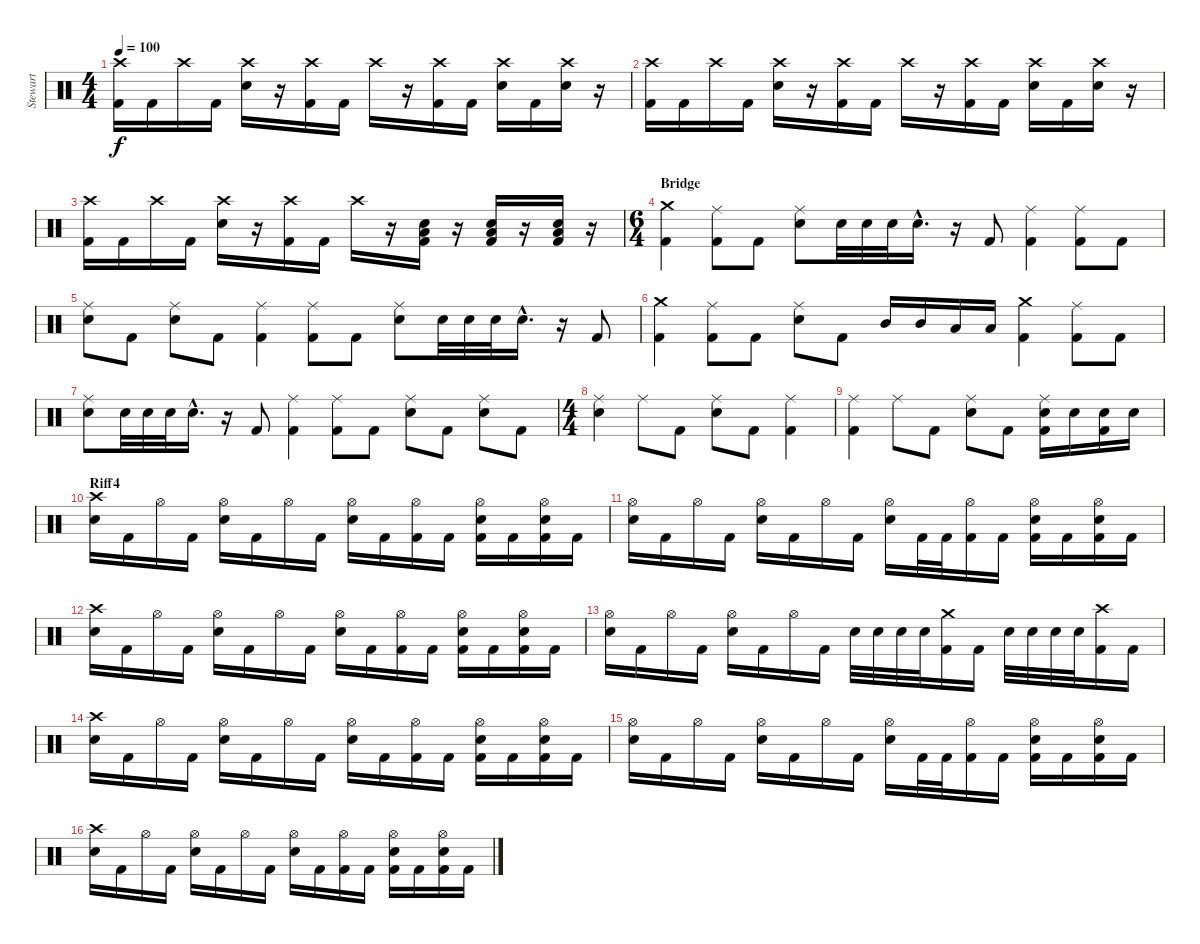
\track ("Stewart" "Stewart") {instrument percussion}
\staff {score}
\articulation defaults
\ts (4 4)
\tempo 100
\clef neutral
\ks c
("Crash high (hit)" "Kick (hit) 2").16{dy f} "Kick (hit) 2".16 "Crash high (hit)".16 "Kick (hit) 2".16 ("Crash high (hit)" "Snare (hit) 2").16 r.16 ("Crash high (hit)" "Kick (hit) 2").16 "Kick (hit) 2".16 "Crash high (hit)".16 r.16 ("Crash high (hit)" "Kick (hit) 2").16 "Kick (hit) 2".16 ("Crash high (hit)" "Snare (hit) 2").16 "Kick (hit) 2".16 ("Crash high (hit)" "Snare (hit) 2").16 r.16 |
("Crash high (hit)" "Kick (hit) 2").16 "Kick (hit) 2".16 "Crash high (hit)".16 "Kick (hit) 2".16 ("Crash high (hit)" "Snare (hit) 2").16 r.16 ("Crash high (hit)" "Kick (hit) 2").16 "Kick (hit) 2".16 "Crash high (hit)".16 r.16 ("Crash high (hit)" "Kick (hit) 2").16 "Kick (hit) 2".16 ("Crash high (hit)" "Snare (hit) 2").16 "Kick (hit) 2".16 ("Crash high (hit)" "Snare (hit) 2").16 r.16 |
("Crash high (hit)" "Kick (hit) 2").16 "Kick (hit) 2".16 "Crash high (hit)".16 "Kick (hit) 2".16 ("Crash high (hit)" "Snare (hit) 2").16 r.16 ("Crash high (hit)" "Kick (hit) 2").16 "Kick (hit) 2".16 "Crash high (hit)".16 r.16 ("Snare (hit) 2" "Low Floor Tom (hit)" "Kick (hit) 2").16 r.16 ("Low Floor Tom (hit)" "Kick (hit) 2" "Snare (hit) 2").16 r.16 ("Low Floor Tom (hit)" "Kick (hit) 2" "Snare (hit) 2").16 r.16 |
\ts (6 4)
\section ("" "Bridge")
("Crash medium (hit)" "Kick (hit) 2").4 ("Ride (middle)" "Kick (hit) 2").8 "Kick (hit) 2".8 ("Ride (middle)" "Snare (hit) 2").8 "Snare (hit) 2".32 "Snare (hit) 2".32 "Snare (hit) 2".32 "Snare (hit) 2"{hac}.16{d} r.16 "Kick (hit) 2".8 ("Ride (middle)" "Kick (hit) 2").4 ("Ride (middle)" "Kick (hit) 2").8 "Kick (hit) 2".8 |
("Ride (middle)" "Snare (hit) 2").8 "Kick (hit) 2".8 ("Ride (middle)" "Snare (hit) 2").8 "Kick (hit) 2".8 ("Ride (middle)" "Kick (hit) 2").4 ("Ride (middle)" "Kick (hit) 2").8 "Kick (hit) 2".8 ("Ride (middle)" "Snare (hit) 2").8 "Snare (hit) 2".32 "Snare (hit) 2".32 "Snare (hit) 2".32 "Snare (hit) 2"{hac}.16{d} r.16 "Kick (hit) 2".8 |
("Crash medium (hit)" "Kick (hit) 2").4 ("Ride (middle)" "Kick (hit) 2").8 "Kick (hit) 2".8 ("Ride (middle)" "Snare (hit) 2").8 "Kick (hit) 2".8 "Mid Tom (hit)".16 "Mid Tom (hit)".16 "Low Tom (hit)".16 "Low Tom (hit)".16 ("Crash medium (hit)" "Kick (hit) 2").4 ("Ride (middle)" "Kick (hit) 2").8 "Kick (hit) 2".8 |
("Ride (middle)" "Snare (hit) 2").8 "Snare (hit) 2".32 "Snare (hit) 2".32 "Snare (hit) 2".32 "Snare (hit) 2"{hac}.16{d} r.16 "Kick (hit) 2".8 ("Ride (middle)" "Kick (hit) 2").4 ("Ride (middle)" "Kick (hit) 2").8 "Kick (hit) 2".8 ("Ride (middle)" "Snare (hit) 2").8 "Kick (hit) 2".8 ("Ride (middle)" "Snare (hit) 2").8 "Kick (hit) 2".8 |
\ts (4 4)
("Ride (middle)" "Snare (hit) 2").4 "Ride (middle)".8 "Kick (hit) 2".8 ("Ride (middle)" "Snare (hit) 2").8 "Kick (hit) 2".8 ("Ride (middle)" "Kick (hit) 2").4 |
("Ride (middle)" "Kick (hit) 2").4 "Ride (middle)".8 "Kick (hit) 2".8 ("Ride (middle)" "Snare (hit) 2").8 "Kick (hit) 2".8 ("Ride (middle)" "Snare (hit) 2" "Kick (hit) 2").16 "Snare (hit) 2".16 ("Snare (hit) 2" "Kick (hit) 2").16 "Snare (hit) 2".16 |
\section ("" "Riff4")
("Crash high (hit)" "Snare (hit) 2").16 "Kick (hit) 2".16 "Hi-Hat (open)".16 "Kick (hit) 2".16 ("Hi-Hat (open)" "Snare (hit) 2").16 "Kick (hit) 2".16 "Hi-Hat (open)".16 "Kick (hit) 2".16 ("Hi-Hat (open)" "Snare (hit) 2").16 "Kick (hit) 2".16 ("Hi-Hat (open)" "Kick (hit) 2").16 "Kick (hit) 2".16 ("Hi-Hat (open)" "Snare (hit) 2" "Kick (hit) 2").16 "Kick (hit) 2".16 ("Hi-Hat (open)" "Snare (hit) 2" "Kick (hit) 2").16 "Kick (hit) 2".16 |
("Hi-Hat (open)" "Snare (hit) 2").16 "Kick (hit) 2".16 "Hi-Hat (open)".16 "Kick (hit) 2".16 ("Hi-Hat (open)" "Snare (hit) 2").16 "Kick (hit) 2".16 "Hi-Hat (open)".16 "Kick (hit) 2".16 ("Hi-Hat (open)" "Snare (hit) 2").16 "Kick (hit) 2".32 "Kick (hit) 2".32 ("Hi-Hat (open)" "Kick (hit) 2").16 "Kick (hit) 2".16 ("Hi-Hat (open)" "Snare (hit) 2" "Kick (hit) 2").16 "Kick (hit) 2".16 ("Hi-Hat (open)" "Snare (hit) 2" "Kick (hit) 2").16 "Kick (hit) 2".16 |
("Crash high (hit)" "Snare (hit) 2").16 "Kick (hit) 2".16 "Hi-Hat (open)".16 "Kick (hit) 2".16 ("Hi-Hat (open)" "Snare (hit) 2").16 "Kick (hit) 2".16 "Hi-Hat (open)".16 "Kick (hit) 2".16 ("Hi-Hat (open)" "Snare (hit) 2").16 "Kick (hit) 2".16 ("Hi-Hat (open)" "Kick (hit) 2").16 "Kick (hit) 2".16 ("Hi-Hat (open)" "Snare (hit) 2" "Kick (hit) 2").16 "Kick (hit) 2".16 ("Hi-Hat (open)" "Snare (hit) 2" "Kick (hit) 2").16 "Kick (hit) 2".16 |
("Hi-Hat (open)" "Snare (hit) 2").16 "Kick (hit) 2".16 "Hi-Hat (open)".16 "Kick (hit) 2".16 ("Hi-Hat (open)" "Snare (hit) 2").16 "Kick (hit) 2".16 "Hi-Hat (open)".16 "Kick (hit) 2".16 "Snare (hit) 2".32 "Snare (hit) 2".32 "Snare (hit) 2".32 "Snare (hit) 2".32 ("Crash medium (hit)" "Kick (hit) 2").16 "Kick (hit) 2".16 "Snare (hit) 2".32 "Snare (hit) 2".32 "Snare (hit) 2".32 "Snare (hit) 2".32 ("Crash high (hit)" "Kick (hit) 2").16 "Kick (hit) 2".16 |
("Crash high (hit)" "Snare (hit) 2").16 "Kick (hit) 2".16 "Hi-Hat (open)".16 "Kick (hit) 2".16 ("Hi-Hat (open)" "Snare (hit) 2").16 "Kick (hit) 2".16 "Hi-Hat (open)".16 "Kick (hit) 2".16 ("Hi-Hat (open)" "Snare (hit) 2").16 "Kick (hit) 2".16 ("Hi-Hat (open)" "Kick (hit) 2").16 "Kick (hit) 2".16 ("Hi-Hat (open)" "Snare (hit) 2" "Kick (hit) 2").16 "Kick (hit) 2".16 ("Hi-Hat (open)" "Snare (hit) 2" "Kick (hit) 2").16 "Kick (hit) 2".16 |
("Hi-Hat (open)" "Snare (hit) 2").16 "Kick (hit) 2".16 "Hi-Hat (open)".16 "Kick (hit) 2".16 ("Hi-Hat (open)" "Snare (hit) 2").16 "Kick (hit) 2".16 "Hi-Hat (open)".16 "Kick (hit) 2".16 ("Hi-Hat (open)" "Snare (hit) 2").16 "Kick (hit) 2".32 "Kick (hit) 2".32 ("Hi-Hat (open)" "Kick (hit) 2").16 "Kick (hit) 2".16 ("Hi-Hat (open)" "Snare (hit) 2" "Kick (hit) 2").16 "Kick (hit) 2".16 ("Hi-Hat (open)" "Snare (hit) 2" "Kick (hit) 2").16 "Kick (hit) 2".16 |
("Crash high (hit)" "Snare (hit) 2").16 "Kick (hit) 2".16 "Hi-Hat (open)".16 "Kick (hit) 2".16 ("Hi-Hat (open)" "Snare (hit) 2").16 "Kick (hit) 2".16 "Hi-Hat (open)".16 "Kick (hit) 2".16 ("Hi-Hat (open)" "Snare (hit) 2").16 "Kick (hit) 2".16 ("Hi-Hat (open)" "Kick (hit) 2").16 "Kick (hit) 2".16 ("Hi-Hat (open)" "Snare (hit) 2" "Kick (hit) 2").16 "Kick (hit) 2".16 ("Hi-Hat (open)" "Snare (hit) 2" "Kick (hit) 2").16 "Kick (hit) 2".16
